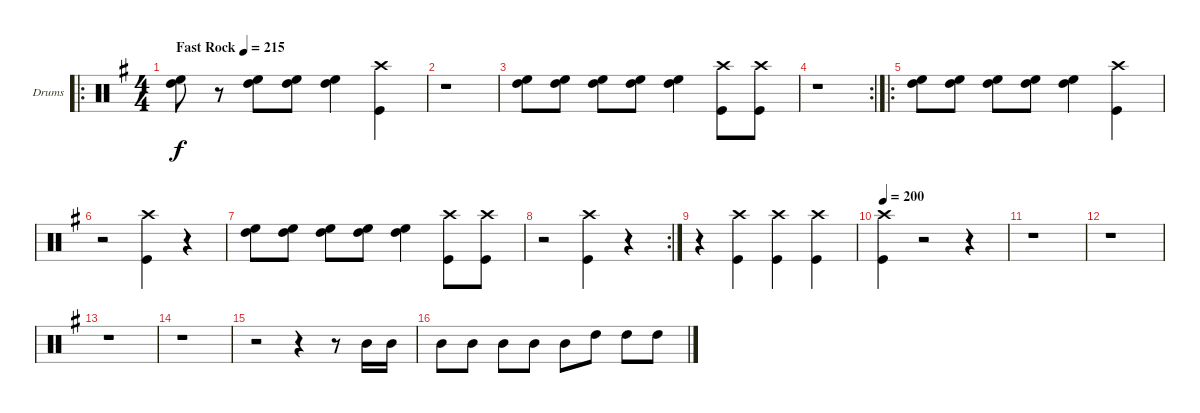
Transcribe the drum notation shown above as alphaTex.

\bracketExtendMode groupsimilarinstruments
\firstSystemTrackNameOrientation horizontal
\otherSystemsTrackNameOrientation horizontal
\track ("Drumkit" "Drums") {instrument percussion}
\staff {score}
\articulation defaults
\ro
\ts (4 4)
\beaming (8 2 2 2 2)
\tempo (215 "Fast Rock")
\clef neutral
\ks g
("High Floor Tom (hit)" "High Tom (hit)").8{dy f} r.8 ("High Floor Tom (hit)" "High Tom (hit)").8 ("High Floor Tom (hit)" "High Tom (hit)").8 ("High Floor Tom (hit)" "High Tom (hit)").4 ("Crash high (hit)" "Kick (hit)").4 |
r.1 |
("High Floor Tom (hit)" "High Tom (hit)").8 ("High Floor Tom (hit)" "High Tom (hit)").8 ("High Floor Tom (hit)" "High Tom (hit)").8 ("High Floor Tom (hit)" "High Tom (hit)").8 ("High Floor Tom (hit)" "High Tom (hit)").4 ("Crash high (hit)" "Kick (hit)").8 ("Kick (hit)" "Crash high (hit)").8 |
\rc 2
r.1 |
\ro
("High Floor Tom (hit)" "High Tom (hit)").8 ("High Floor Tom (hit)" "High Tom (hit)").8 ("High Floor Tom (hit)" "High Tom (hit)").8 ("High Floor Tom (hit)" "High Tom (hit)").8 ("High Floor Tom (hit)" "High Tom (hit)").4 ("Crash high (hit)" "Kick (hit)").4 |
r.2 ("Kick (hit)" "Crash high (hit)").4 r.4 |
("High Floor Tom (hit)" "High Tom (hit)").8 ("High Floor Tom (hit)" "High Tom (hit)").8 ("High Floor Tom (hit)" "High Tom (hit)").8 ("High Floor Tom (hit)" "High Tom (hit)").8 ("High Floor Tom (hit)" "High Tom (hit)").4 ("Crash high (hit)" "Kick (hit)").8 ("Kick (hit)" "Crash high (hit)").8 |
\rc 2
r.2 ("Kick (hit)" "Crash high (hit)").4 r.4 |
r.4 ("Kick (hit)" "Crash high (hit)").4 ("Kick (hit)" "Crash high (hit)").4 ("Kick (hit)" "Crash high (hit)").4 |
\tempo 200
("Kick (hit)" "Crash high (hit)").4 r.2 r.4 |
r.1 |
r.1 |
r.1 |
r.1 |
r.2 r.4 r.8 "Mid Tom (hit)".16 "Mid Tom (hit)".16 |
"Mid Tom (hit)".8 "Mid Tom (hit)".8 "Mid Tom (hit)".8 "Mid Tom (hit)".8 "Mid Tom (hit)".8 "High Tom (hit)".8 "High Tom (hit)".8 "High Tom (hit)".8
